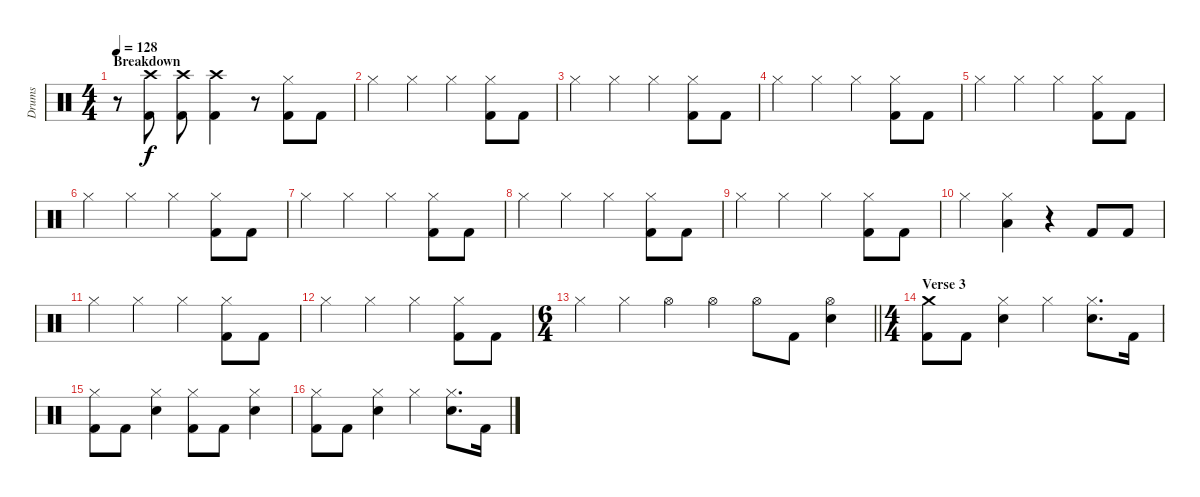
\track ("Drums" "Drums") {instrument percussion}
\staff {score}
\articulation defaults
\ts (4 4)
\section ("" "Breakdown")
\tempo 128
\clef neutral
\ks c
r.8{dy f} ("Crash high (hit)" "Kick (hit) 2").8 ("Crash high (hit)" "Kick (hit) 2").8 ("Crash high (hit)" "Kick (hit) 2").4 r.8 ("Hi-Hat (closed)" "Kick (hit) 2").8 "Kick (hit) 2".8 |
"Hi-Hat (closed)".4 "Hi-Hat (closed)".4 "Hi-Hat (closed)".4 ("Hi-Hat (closed)" "Kick (hit) 2").8 "Kick (hit) 2".8 |
"Hi-Hat (closed)".4 "Hi-Hat (closed)".4 "Hi-Hat (closed)".4 ("Hi-Hat (closed)" "Kick (hit) 2").8 "Kick (hit) 2".8 |
"Hi-Hat (closed)".4 "Hi-Hat (closed)".4 "Hi-Hat (closed)".4 ("Hi-Hat (closed)" "Kick (hit) 2").8 "Kick (hit) 2".8 |
"Hi-Hat (closed)".4 "Hi-Hat (closed)".4 "Hi-Hat (closed)".4 ("Hi-Hat (closed)" "Kick (hit) 2").8 "Kick (hit) 2".8 |
"Hi-Hat (closed)".4 "Hi-Hat (closed)".4 "Hi-Hat (closed)".4 ("Hi-Hat (closed)" "Kick (hit) 2").8 "Kick (hit) 2".8 |
"Hi-Hat (closed)".4 "Hi-Hat (closed)".4 "Hi-Hat (closed)".4 ("Hi-Hat (closed)" "Kick (hit) 2").8 "Kick (hit) 2".8 |
"Hi-Hat (closed)".4 "Hi-Hat (closed)".4 "Hi-Hat (closed)".4 ("Hi-Hat (closed)" "Kick (hit) 2").8 "Kick (hit) 2".8 |
"Hi-Hat (closed)".4 "Hi-Hat (closed)".4 "Hi-Hat (closed)".4 ("Hi-Hat (closed)" "Kick (hit) 2").8 "Kick (hit) 2".8 |
"Hi-Hat (closed)".4 ("Hi-Hat (closed)" "Low Tom (hit)").4 r.4 "Kick (hit) 2".8 "Kick (hit) 2".8 |
"Hi-Hat (closed)".4 "Hi-Hat (closed)".4 "Hi-Hat (closed)".4 ("Hi-Hat (closed)" "Kick (hit) 2").8 "Kick (hit) 2".8 |
"Hi-Hat (closed)".4 "Hi-Hat (closed)".4 "Hi-Hat (closed)".4 ("Hi-Hat (closed)" "Kick (hit) 2").8 "Kick (hit) 2".8 |
\ts (6 4)
\barLineRight lightlight "Hi-Hat (closed)".4 "Hi-Hat (closed)".4 "Hi-Hat (open)".4 "Hi-Hat (open)".4 "Hi-Hat (open)".8 "Kick (hit) 2".8
("Hi-Hat (open)" "Electric Snare (hit)").4 |
\ts (4 4)
\section ("" "Verse 3")
("Crash medium (hit)" "Kick (hit) 2").8 "Kick (hit) 2".8 ("Hi-Hat (closed)" "Electric Snare (hit)").4 "Hi-Hat (closed)".4 ("Hi-Hat (closed)" "Electric Snare (hit)").8{d} "Kick (hit) 2".16 |
("Hi-Hat (closed)" "Kick (hit) 2").8 "Kick (hit) 2".8 ("Hi-Hat (closed)" "Electric Snare (hit)").4 ("Hi-Hat (closed)" "Kick (hit) 2").8 "Kick (hit) 2".8 ("Hi-Hat (closed)" "Electric Snare (hit)").4 |
("Hi-Hat (closed)" "Kick (hit) 2").8 "Kick (hit) 2".8 ("Hi-Hat (closed)" "Electric Snare (hit)").4 "Hi-Hat (closed)".4 ("Hi-Hat (closed)" "Electric Snare (hit)").8{d} "Kick (hit) 2".16
